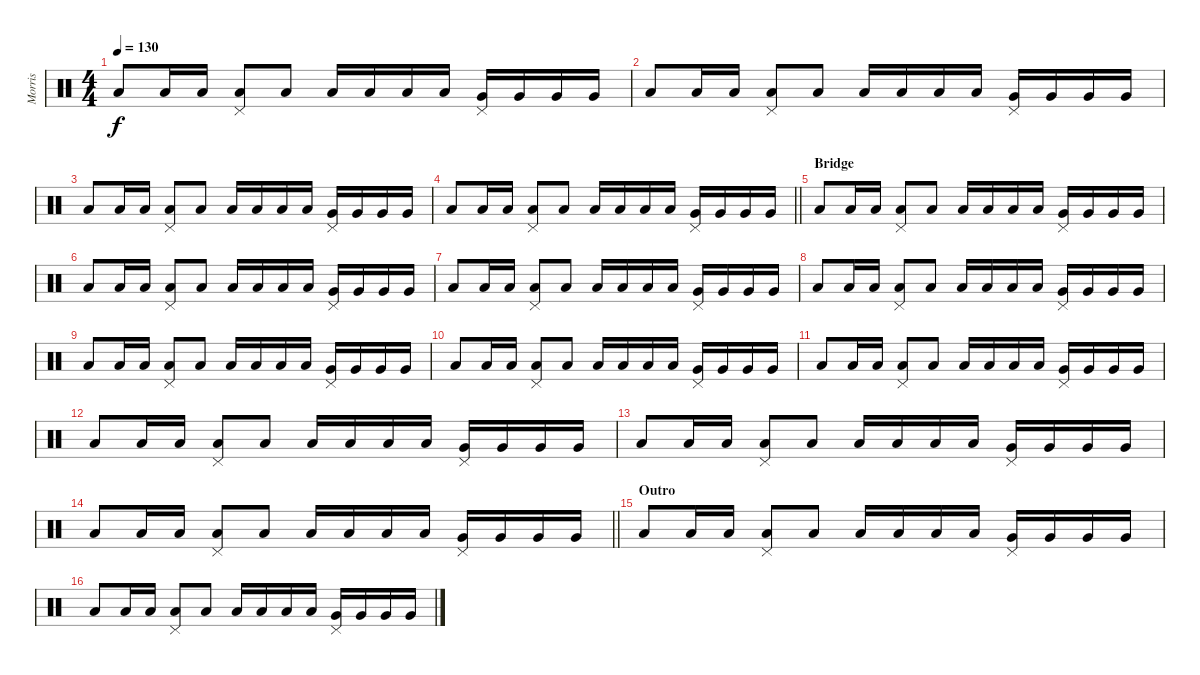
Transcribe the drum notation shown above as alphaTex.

\track ("Morris" "Morris") {instrument percussion}
\staff {score}
\articulation defaults
\ts (4 4)
\tempo 130
\clef neutral
\ks c "Low Floor Tom (hit)".8{dy f} "Low Floor Tom (hit)".16 "Low Floor Tom (hit)".16
("Low Tom (hit)" "Pedal Hi-Hat (hit)").8 "Low Floor Tom (hit)".8 "Low Tom (hit)".16 "Low Tom (hit)".16 "Low Tom (hit)".16 "Low Tom (hit)".16 ("Very Low Tom (hit)" "Pedal Hi-Hat (hit)").16 "Very Low Tom (hit)".16 "Very Low Tom (hit)".16 "Very Low Tom (hit)".16 |
"Low Floor Tom (hit)".8 "Low Floor Tom (hit)".16 "Low Floor Tom (hit)".16 ("Low Tom (hit)" "Pedal Hi-Hat (hit)").8 "Low Floor Tom (hit)".8 "Low Tom (hit)".16 "Low Tom (hit)".16 "Low Tom (hit)".16 "Low Tom (hit)".16 ("Very Low Tom (hit)" "Pedal Hi-Hat (hit)").16 "Very Low Tom (hit)".16 "Very Low Tom (hit)".16 "Very Low Tom (hit)".16 |
"Low Floor Tom (hit)".8 "Low Floor Tom (hit)".16 "Low Floor Tom (hit)".16 ("Low Tom (hit)" "Pedal Hi-Hat (hit)").8 "Low Floor Tom (hit)".8 "Low Tom (hit)".16 "Low Tom (hit)".16 "Low Tom (hit)".16 "Low Tom (hit)".16 ("Very Low Tom (hit)" "Pedal Hi-Hat (hit)").16 "Very Low Tom (hit)".16 "Very Low Tom (hit)".16 "Very Low Tom (hit)".16 |
\barLineRight lightlight "Low Floor Tom (hit)".8 "Low Floor Tom (hit)".16 "Low Floor Tom (hit)".16
("Low Tom (hit)" "Pedal Hi-Hat (hit)").8 "Low Floor Tom (hit)".8 "Low Tom (hit)".16 "Low Tom (hit)".16 "Low Tom (hit)".16 "Low Tom (hit)".16 ("Very Low Tom (hit)" "Pedal Hi-Hat (hit)").16 "Very Low Tom (hit)".16 "Very Low Tom (hit)".16 "Very Low Tom (hit)".16 |
\section ("" "Bridge")
"Low Floor Tom (hit)".8 "Low Floor Tom (hit)".16 "Low Floor Tom (hit)".16 ("Low Tom (hit)" "Pedal Hi-Hat (hit)").8 "Low Floor Tom (hit)".8 "Low Tom (hit)".16 "Low Tom (hit)".16 "Low Tom (hit)".16 "Low Tom (hit)".16 ("Very Low Tom (hit)" "Pedal Hi-Hat (hit)").16 "Very Low Tom (hit)".16 "Very Low Tom (hit)".16 "Very Low Tom (hit)".16 |
"Low Floor Tom (hit)".8 "Low Floor Tom (hit)".16 "Low Floor Tom (hit)".16 ("Low Tom (hit)" "Pedal Hi-Hat (hit)").8 "Low Floor Tom (hit)".8 "Low Tom (hit)".16 "Low Tom (hit)".16 "Low Tom (hit)".16 "Low Tom (hit)".16 ("Very Low Tom (hit)" "Pedal Hi-Hat (hit)").16 "Very Low Tom (hit)".16 "Very Low Tom (hit)".16 "Very Low Tom (hit)".16 |
"Low Floor Tom (hit)".8 "Low Floor Tom (hit)".16 "Low Floor Tom (hit)".16 ("Low Tom (hit)" "Pedal Hi-Hat (hit)").8 "Low Floor Tom (hit)".8 "Low Tom (hit)".16 "Low Tom (hit)".16 "Low Tom (hit)".16 "Low Tom (hit)".16 ("Very Low Tom (hit)" "Pedal Hi-Hat (hit)").16 "Very Low Tom (hit)".16 "Very Low Tom (hit)".16 "Very Low Tom (hit)".16 |
"Low Floor Tom (hit)".8 "Low Floor Tom (hit)".16 "Low Floor Tom (hit)".16 ("Low Tom (hit)" "Pedal Hi-Hat (hit)").8 "Low Floor Tom (hit)".8 "Low Tom (hit)".16 "Low Tom (hit)".16 "Low Tom (hit)".16 "Low Tom (hit)".16 ("Very Low Tom (hit)" "Pedal Hi-Hat (hit)").16 "Very Low Tom (hit)".16 "Very Low Tom (hit)".16 "Very Low Tom (hit)".16 |
"Low Floor Tom (hit)".8 "Low Floor Tom (hit)".16 "Low Floor Tom (hit)".16 ("Low Tom (hit)" "Pedal Hi-Hat (hit)").8 "Low Floor Tom (hit)".8 "Low Tom (hit)".16 "Low Tom (hit)".16 "Low Tom (hit)".16 "Low Tom (hit)".16 ("Very Low Tom (hit)" "Pedal Hi-Hat (hit)").16 "Very Low Tom (hit)".16 "Very Low Tom (hit)".16 "Very Low Tom (hit)".16 |
"Low Floor Tom (hit)".8 "Low Floor Tom (hit)".16 "Low Floor Tom (hit)".16 ("Low Tom (hit)" "Pedal Hi-Hat (hit)").8 "Low Floor Tom (hit)".8 "Low Tom (hit)".16 "Low Tom (hit)".16 "Low Tom (hit)".16 "Low Tom (hit)".16 ("Very Low Tom (hit)" "Pedal Hi-Hat (hit)").16 "Very Low Tom (hit)".16 "Very Low Tom (hit)".16 "Very Low Tom (hit)".16 |
"Low Floor Tom (hit)".8 "Low Floor Tom (hit)".16 "Low Floor Tom (hit)".16 ("Low Tom (hit)" "Pedal Hi-Hat (hit)").8 "Low Floor Tom (hit)".8 "Low Tom (hit)".16 "Low Tom (hit)".16 "Low Tom (hit)".16 "Low Tom (hit)".16 ("Very Low Tom (hit)" "Pedal Hi-Hat (hit)").16 "Very Low Tom (hit)".16 "Very Low Tom (hit)".16 "Very Low Tom (hit)".16 |
"Low Floor Tom (hit)".8 "Low Floor Tom (hit)".16 "Low Floor Tom (hit)".16 ("Low Tom (hit)" "Pedal Hi-Hat (hit)").8 "Low Floor Tom (hit)".8 "Low Tom (hit)".16 "Low Tom (hit)".16 "Low Tom (hit)".16 "Low Tom (hit)".16 ("Very Low Tom (hit)" "Pedal Hi-Hat (hit)").16 "Very Low Tom (hit)".16 "Very Low Tom (hit)".16 "Very Low Tom (hit)".16 |
"Low Floor Tom (hit)".8 "Low Floor Tom (hit)".16 "Low Floor Tom (hit)".16 ("Low Tom (hit)" "Pedal Hi-Hat (hit)").8 "Low Floor Tom (hit)".8 "Low Tom (hit)".16 "Low Tom (hit)".16 "Low Tom (hit)".16 "Low Tom (hit)".16 ("Very Low Tom (hit)" "Pedal Hi-Hat (hit)").16 "Very Low Tom (hit)".16 "Very Low Tom (hit)".16 "Very Low Tom (hit)".16 |
\barLineRight lightlight "Low Floor Tom (hit)".8 "Low Floor Tom (hit)".16 "Low Floor Tom (hit)".16
("Low Tom (hit)" "Pedal Hi-Hat (hit)").8 "Low Floor Tom (hit)".8 "Low Tom (hit)".16 "Low Tom (hit)".16 "Low Tom (hit)".16 "Low Tom (hit)".16 ("Very Low Tom (hit)" "Pedal Hi-Hat (hit)").16 "Very Low Tom (hit)".16 "Very Low Tom (hit)".16 "Very Low Tom (hit)".16 |
\section ("" "Outro")
"Low Floor Tom (hit)".8 "Low Floor Tom (hit)".16 "Low Floor Tom (hit)".16 ("Low Tom (hit)" "Pedal Hi-Hat (hit)").8 "Low Floor Tom (hit)".8 "Low Tom (hit)".16 "Low Tom (hit)".16 "Low Tom (hit)".16 "Low Tom (hit)".16 ("Very Low Tom (hit)" "Pedal Hi-Hat (hit)").16 "Very Low Tom (hit)".16 "Very Low Tom (hit)".16 "Very Low Tom (hit)".16 |
"Low Floor Tom (hit)".8 "Low Floor Tom (hit)".16 "Low Floor Tom (hit)".16 ("Low Tom (hit)" "Pedal Hi-Hat (hit)").8 "Low Floor Tom (hit)".8 "Low Tom (hit)".16 "Low Tom (hit)".16 "Low Tom (hit)".16 "Low Tom (hit)".16 ("Very Low Tom (hit)" "Pedal Hi-Hat (hit)").16 "Very Low Tom (hit)".16 "Very Low Tom (hit)".16 "Very Low Tom (hit)".16
